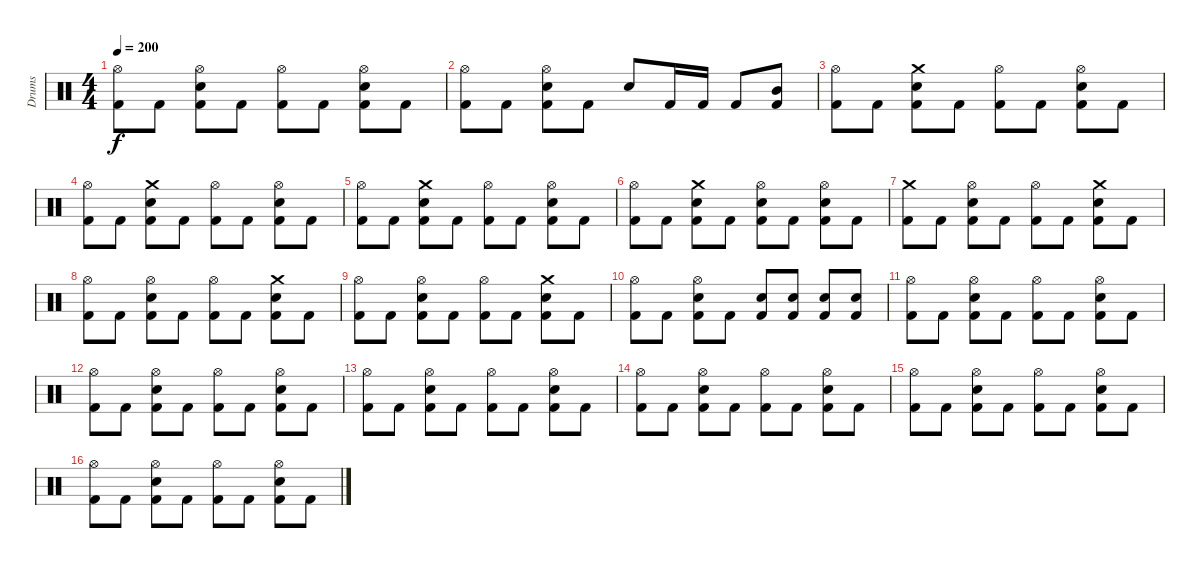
\track ("Drums" "Drums") {instrument percussion}
\staff {score}
\articulation defaults
\ts (4 4)
\tempo 200
\clef neutral
\ks c
("Hi-Hat (open)" "Kick (hit) 2").8{dy f} "Kick (hit) 2".8 ("Hi-Hat (open)" "Snare (hit) 2" "Kick (hit) 2").8 "Kick (hit) 2".8 ("Hi-Hat (open)" "Kick (hit) 2").8 "Kick (hit) 2".8 ("Hi-Hat (open)" "Snare (hit) 2" "Kick (hit) 2").8 "Kick (hit) 2".8 |
("Hi-Hat (open)" "Kick (hit) 2").8 "Kick (hit) 2".8 ("Hi-Hat (open)" "Snare (hit) 2" "Kick (hit) 2").8 "Kick (hit) 2".8 "Snare (hit) 2".8 "Kick (hit) 2".16 "Kick (hit) 2".16 "Kick (hit) 2".8 ("Mid Tom (hit)" "Kick (hit) 2").8 |
("Hi-Hat (open)" "Kick (hit) 2").8 "Kick (hit) 2".8 ("Crash medium (hit)" "Snare (hit) 2" "Kick (hit) 2").8 "Kick (hit) 2".8 ("Hi-Hat (open)" "Kick (hit) 2").8 "Kick (hit) 2".8 ("Hi-Hat (open)" "Snare (hit) 2" "Kick (hit) 2").8 "Kick (hit) 2".8 |
("Hi-Hat (open)" "Kick (hit) 2").8 "Kick (hit) 2".8 ("Crash medium (hit)" "Snare (hit) 2" "Kick (hit) 2").8 "Kick (hit) 2".8 ("Hi-Hat (open)" "Kick (hit) 2").8 "Kick (hit) 2".8 ("Hi-Hat (open)" "Snare (hit) 2" "Kick (hit) 2").8 "Kick (hit) 2".8 |
("Hi-Hat (open)" "Kick (hit) 2").8 "Kick (hit) 2".8 ("Crash medium (hit)" "Snare (hit) 2" "Kick (hit) 2").8 "Kick (hit) 2".8 ("Hi-Hat (open)" "Kick (hit) 2").8 "Kick (hit) 2".8 ("Hi-Hat (open)" "Snare (hit) 2" "Kick (hit) 2").8 "Kick (hit) 2".8 |
("Hi-Hat (open)" "Kick (hit) 2").8 "Kick (hit) 2".8 ("Crash medium (hit)" "Snare (hit) 2" "Kick (hit) 2").8 "Kick (hit) 2".8 ("Hi-Hat (open)" "Snare (hit) 2" "Kick (hit) 2").8 "Kick (hit) 2".8 ("Hi-Hat (open)" "Snare (hit) 2" "Kick (hit) 2").8 "Kick (hit) 2".8 |
("Crash medium (hit)" "Kick (hit) 2").8 "Kick (hit) 2".8 ("Hi-Hat (open)" "Snare (hit) 2" "Kick (hit) 2").8 "Kick (hit) 2".8 ("Hi-Hat (open)" "Kick (hit) 2").8 "Kick (hit) 2".8 ("Crash medium (hit)" "Snare (hit) 2" "Kick (hit) 2").8 "Kick (hit) 2".8 |
("Hi-Hat (open)" "Kick (hit) 2").8 "Kick (hit) 2".8 ("Hi-Hat (open)" "Snare (hit) 2" "Kick (hit) 2").8 "Kick (hit) 2".8 ("Hi-Hat (open)" "Kick (hit) 2").8 "Kick (hit) 2".8 ("Crash medium (hit)" "Snare (hit) 2" "Kick (hit) 2").8 "Kick (hit) 2".8 |
("Hi-Hat (open)" "Kick (hit) 2").8 "Kick (hit) 2".8 ("Hi-Hat (open)" "Snare (hit) 2" "Kick (hit) 2").8 "Kick (hit) 2".8 ("Hi-Hat (open)" "Kick (hit) 2").8 "Kick (hit) 2".8 ("Crash medium (hit)" "Snare (hit) 2" "Kick (hit) 2").8 "Kick (hit) 2".8 |
("Hi-Hat (open)" "Kick (hit) 2").8 "Kick (hit) 2".8 ("Hi-Hat (open)" "Snare (hit) 2" "Kick (hit) 2").8 "Kick (hit) 2".8 ("Snare (hit) 2" "Kick (hit) 2").8 ("Snare (hit) 2" "Kick (hit) 2").8 ("Snare (hit) 2" "Kick (hit) 2").8 ("Snare (hit) 2" "Kick (hit) 2").8 |
("Hi-Hat (open)" "Kick (hit) 2").8 "Kick (hit) 2".8 ("Hi-Hat (open)" "Snare (hit) 2" "Kick (hit) 2").8 "Kick (hit) 2".8 ("Hi-Hat (open)" "Kick (hit) 2").8 "Kick (hit) 2".8 ("Hi-Hat (open)" "Snare (hit) 2" "Kick (hit) 2").8 "Kick (hit) 2".8 |
("Hi-Hat (open)" "Kick (hit) 2").8 "Kick (hit) 2".8 ("Hi-Hat (open)" "Snare (hit) 2" "Kick (hit) 2").8 "Kick (hit) 2".8 ("Hi-Hat (open)" "Kick (hit) 2").8 "Kick (hit) 2".8 ("Hi-Hat (open)" "Snare (hit) 2" "Kick (hit) 2").8 "Kick (hit) 2".8 |
("Hi-Hat (open)" "Kick (hit) 2").8 "Kick (hit) 2".8 ("Hi-Hat (open)" "Snare (hit) 2" "Kick (hit) 2").8 "Kick (hit) 2".8 ("Hi-Hat (open)" "Kick (hit) 2").8 "Kick (hit) 2".8 ("Hi-Hat (open)" "Snare (hit) 2" "Kick (hit) 2").8 "Kick (hit) 2".8 |
("Hi-Hat (open)" "Kick (hit) 2").8 "Kick (hit) 2".8 ("Hi-Hat (open)" "Snare (hit) 2" "Kick (hit) 2").8 "Kick (hit) 2".8 ("Hi-Hat (open)" "Kick (hit) 2").8 "Kick (hit) 2".8 ("Hi-Hat (open)" "Snare (hit) 2" "Kick (hit) 2").8 "Kick (hit) 2".8 |
("Hi-Hat (open)" "Kick (hit) 2").8 "Kick (hit) 2".8 ("Hi-Hat (open)" "Snare (hit) 2" "Kick (hit) 2").8 "Kick (hit) 2".8 ("Hi-Hat (open)" "Kick (hit) 2").8 "Kick (hit) 2".8 ("Hi-Hat (open)" "Snare (hit) 2" "Kick (hit) 2").8 "Kick (hit) 2".8 |
("Hi-Hat (open)" "Kick (hit) 2").8 "Kick (hit) 2".8 ("Hi-Hat (open)" "Snare (hit) 2" "Kick (hit) 2").8 "Kick (hit) 2".8 ("Hi-Hat (open)" "Kick (hit) 2").8 "Kick (hit) 2".8 ("Hi-Hat (open)" "Snare (hit) 2" "Kick (hit) 2").8 "Kick (hit) 2".8
